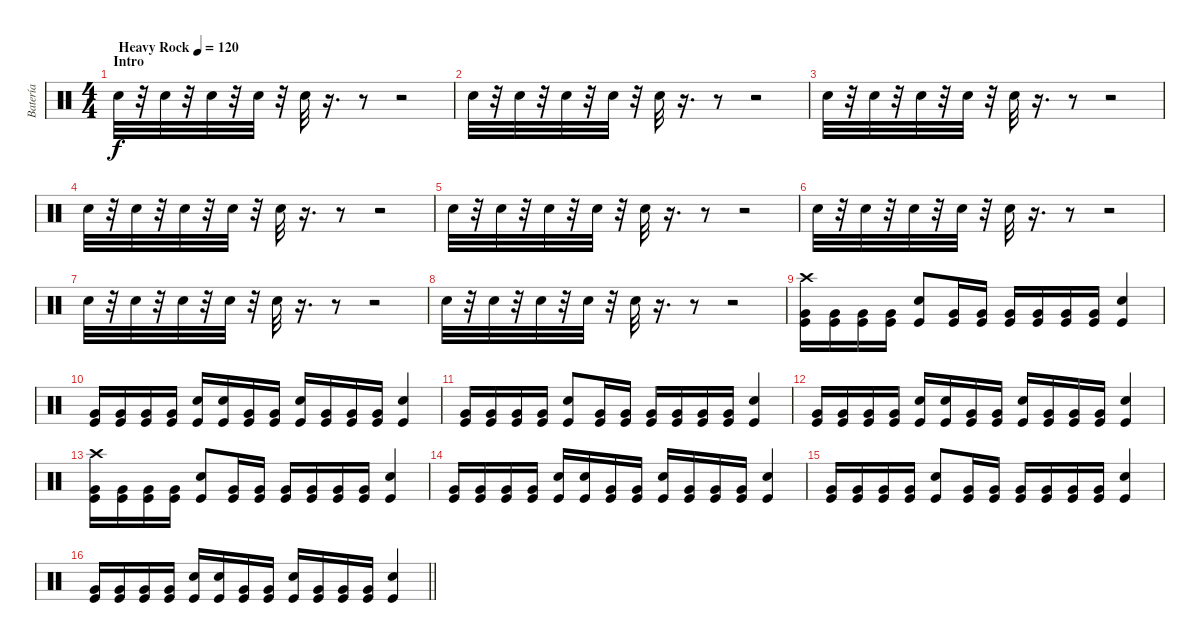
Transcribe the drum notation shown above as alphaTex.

\track ("Batería" "Batería") {instrument percussion}
\staff {score}
\articulation defaults
\ts (4 4)
\section ("" "Intro")
\tempo (120 "Heavy Rock")
\clef neutral
\ks c "Electric Snare (hit)".32{dy f}
r.32 "Electric Snare (hit)".32 r.32 "Electric Snare (hit)".32 r.32 "Electric Snare (hit)".32 r.32 "Electric Snare (hit)".32 r.16{d} r.8 r.2 |
"Electric Snare (hit)".32 r.32 "Electric Snare (hit)".32 r.32 "Electric Snare (hit)".32 r.32 "Electric Snare (hit)".32 r.32 "Electric Snare (hit)".32 r.16{d} r.8 r.2 |
"Electric Snare (hit)".32 r.32 "Electric Snare (hit)".32 r.32 "Electric Snare (hit)".32 r.32 "Electric Snare (hit)".32 r.32 "Electric Snare (hit)".32 r.16{d} r.8 r.2 |
"Electric Snare (hit)".32 r.32 "Electric Snare (hit)".32 r.32 "Electric Snare (hit)".32 r.32 "Electric Snare (hit)".32 r.32 "Electric Snare (hit)".32 r.16{d} r.8 r.2 |
"Electric Snare (hit)".32 r.32 "Electric Snare (hit)".32 r.32 "Electric Snare (hit)".32 r.32 "Electric Snare (hit)".32 r.32 "Electric Snare (hit)".32 r.16{d} r.8 r.2 |
"Electric Snare (hit)".32 r.32 "Electric Snare (hit)".32 r.32 "Electric Snare (hit)".32 r.32 "Electric Snare (hit)".32 r.32 "Electric Snare (hit)".32 r.16{d} r.8 r.2 |
"Electric Snare (hit)".32 r.32 "Electric Snare (hit)".32 r.32 "Electric Snare (hit)".32 r.32 "Electric Snare (hit)".32 r.32 "Electric Snare (hit)".32 r.16{d} r.8 r.2 |
"Electric Snare (hit)".32 r.32 "Electric Snare (hit)".32 r.32 "Electric Snare (hit)".32 r.32 "Electric Snare (hit)".32 r.32 "Electric Snare (hit)".32 r.16{d} r.8 r.2 |
("Kick (hit)" "Very Low Tom (hit)" "Crash high (hit)").16 ("Kick (hit)" "Very Low Tom (hit)").16 ("Kick (hit)" "Very Low Tom (hit)").16 ("Kick (hit)" "Very Low Tom (hit)").16 ("Kick (hit)" "Electric Snare (hit)").8 ("Kick (hit)" "Very Low Tom (hit)").16 ("Kick (hit)" "Very Low Tom (hit)").16 ("Kick (hit)" "Very Low Tom (hit)").16 ("Kick (hit)" "Very Low Tom (hit)").16 ("Kick (hit)" "Very Low Tom (hit)").16 ("Kick (hit)" "Very Low Tom (hit)").16 ("Kick (hit)" "Electric Snare (hit)").4 |
("Kick (hit)" "Very Low Tom (hit)").16 ("Kick (hit)" "Very Low Tom (hit)").16 ("Kick (hit)" "Very Low Tom (hit)").16 ("Kick (hit)" "Very Low Tom (hit)").16 ("Kick (hit)" "Electric Snare (hit)").16 ("Kick (hit)" "Electric Snare (hit)").16 ("Kick (hit)" "Very Low Tom (hit)").16 ("Kick (hit)" "Very Low Tom (hit)").16 ("Kick (hit)" "Electric Snare (hit)").16 ("Kick (hit)" "Very Low Tom (hit)").16 ("Kick (hit)" "Very Low Tom (hit)").16 ("Kick (hit)" "Very Low Tom (hit)").16 ("Kick (hit)" "Electric Snare (hit)").4 |
("Kick (hit)" "Very Low Tom (hit)").16 ("Kick (hit)" "Very Low Tom (hit)").16 ("Kick (hit)" "Very Low Tom (hit)").16 ("Kick (hit)" "Very Low Tom (hit)").16 ("Kick (hit)" "Electric Snare (hit)").8 ("Kick (hit)" "Very Low Tom (hit)").16 ("Kick (hit)" "Very Low Tom (hit)").16 ("Kick (hit)" "Very Low Tom (hit)").16 ("Kick (hit)" "Very Low Tom (hit)").16 ("Kick (hit)" "Very Low Tom (hit)").16 ("Kick (hit)" "Very Low Tom (hit)").16 ("Kick (hit)" "Electric Snare (hit)").4 |
("Kick (hit)" "Very Low Tom (hit)").16 ("Kick (hit)" "Very Low Tom (hit)").16 ("Kick (hit)" "Very Low Tom (hit)").16 ("Kick (hit)" "Very Low Tom (hit)").16 ("Kick (hit)" "Electric Snare (hit)").16 ("Kick (hit)" "Electric Snare (hit)").16 ("Kick (hit)" "Very Low Tom (hit)").16 ("Kick (hit)" "Very Low Tom (hit)").16 ("Kick (hit)" "Electric Snare (hit)").16 ("Kick (hit)" "Very Low Tom (hit)").16 ("Kick (hit)" "Very Low Tom (hit)").16 ("Kick (hit)" "Very Low Tom (hit)").16 ("Kick (hit)" "Electric Snare (hit)").4 |
("Kick (hit)" "Very Low Tom (hit)" "Crash high (hit)").16 ("Kick (hit)" "Very Low Tom (hit)").16 ("Kick (hit)" "Very Low Tom (hit)").16 ("Kick (hit)" "Very Low Tom (hit)").16 ("Kick (hit)" "Electric Snare (hit)").8 ("Kick (hit)" "Very Low Tom (hit)").16 ("Kick (hit)" "Very Low Tom (hit)").16 ("Kick (hit)" "Very Low Tom (hit)").16 ("Kick (hit)" "Very Low Tom (hit)").16 ("Kick (hit)" "Very Low Tom (hit)").16 ("Kick (hit)" "Very Low Tom (hit)").16 ("Kick (hit)" "Electric Snare (hit)").4 |
("Kick (hit)" "Very Low Tom (hit)").16 ("Kick (hit)" "Very Low Tom (hit)").16 ("Kick (hit)" "Very Low Tom (hit)").16 ("Kick (hit)" "Very Low Tom (hit)").16 ("Kick (hit)" "Electric Snare (hit)").16 ("Kick (hit)" "Electric Snare (hit)").16 ("Kick (hit)" "Very Low Tom (hit)").16 ("Kick (hit)" "Very Low Tom (hit)").16 ("Kick (hit)" "Electric Snare (hit)").16 ("Kick (hit)" "Very Low Tom (hit)").16 ("Kick (hit)" "Very Low Tom (hit)").16 ("Kick (hit)" "Very Low Tom (hit)").16 ("Kick (hit)" "Electric Snare (hit)").4 |
("Kick (hit)" "Very Low Tom (hit)").16 ("Kick (hit)" "Very Low Tom (hit)").16 ("Kick (hit)" "Very Low Tom (hit)").16 ("Kick (hit)" "Very Low Tom (hit)").16 ("Kick (hit)" "Electric Snare (hit)").8 ("Kick (hit)" "Very Low Tom (hit)").16 ("Kick (hit)" "Very Low Tom (hit)").16 ("Kick (hit)" "Very Low Tom (hit)").16 ("Kick (hit)" "Very Low Tom (hit)").16 ("Kick (hit)" "Very Low Tom (hit)").16 ("Kick (hit)" "Very Low Tom (hit)").16 ("Kick (hit)" "Electric Snare (hit)").4 |
\barLineRight lightlight
("Kick (hit)" "Very Low Tom (hit)").16 ("Kick (hit)" "Very Low Tom (hit)").16 ("Kick (hit)" "Very Low Tom (hit)").16 ("Kick (hit)" "Very Low Tom (hit)").16 ("Kick (hit)" "Electric Snare (hit)").16 ("Kick (hit)" "Electric Snare (hit)").16 ("Kick (hit)" "Very Low Tom (hit)").16 ("Kick (hit)" "Very Low Tom (hit)").16 ("Kick (hit)" "Electric Snare (hit)").16 ("Kick (hit)" "Very Low Tom (hit)").16 ("Kick (hit)" "Very Low Tom (hit)").16 ("Kick (hit)" "Very Low Tom (hit)").16 ("Kick (hit)" "Electric Snare (hit)").4
